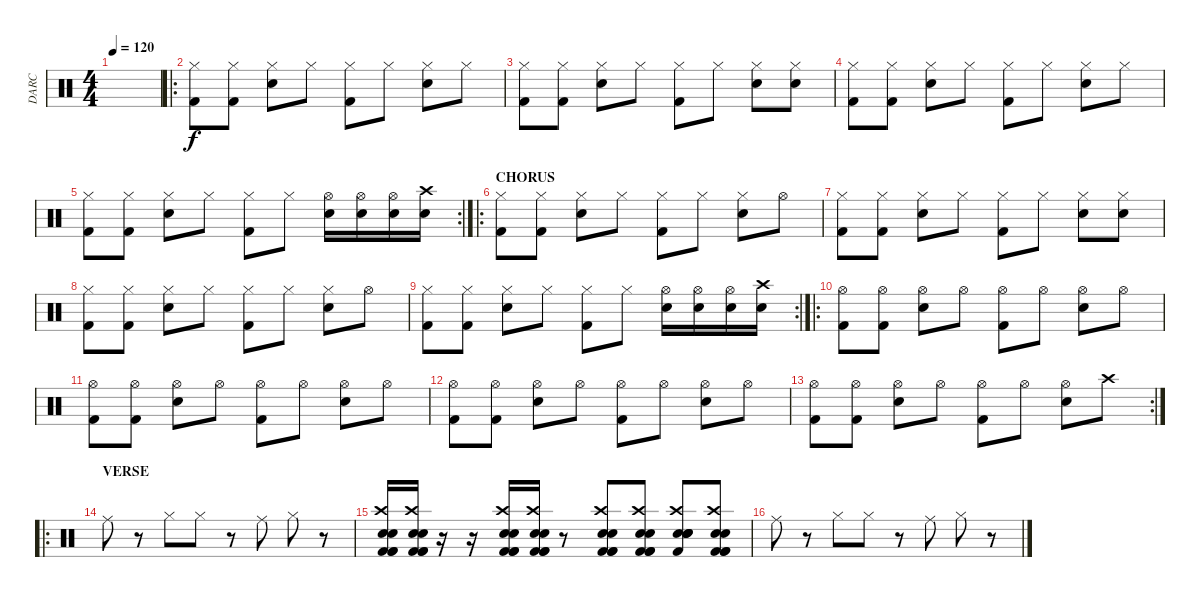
\track ("DARC" "DARC") {instrument percussion}
\staff {score}
\articulation defaults
\ts (4 4)
\tempo 120
\clef neutral
\ks c
|
\ro
("Hi-Hat (closed)" "Kick (hit) 2").8 ("Hi-Hat (closed)" "Kick (hit) 2").8 ("Hi-Hat (closed)" "Snare (hit) 2").8 "Hi-Hat (closed)".8 ("Hi-Hat (closed)" "Kick (hit) 2").8 "Hi-Hat (closed)".8 ("Hi-Hat (closed)" "Snare (hit) 2").8 "Hi-Hat (closed)".8 |
("Hi-Hat (closed)" "Kick (hit) 2").8 ("Hi-Hat (closed)" "Kick (hit) 2").8 ("Hi-Hat (closed)" "Snare (hit) 2").8 "Hi-Hat (closed)".8 ("Hi-Hat (closed)" "Kick (hit) 2").8 "Hi-Hat (closed)".8 ("Hi-Hat (closed)" "Snare (hit) 2").8 ("Hi-Hat (closed)" "Snare (hit) 2").8 |
("Hi-Hat (closed)" "Kick (hit) 2").8 ("Hi-Hat (closed)" "Kick (hit) 2").8 ("Hi-Hat (closed)" "Snare (hit) 2").8 "Hi-Hat (closed)".8 ("Hi-Hat (closed)" "Kick (hit) 2").8 "Hi-Hat (closed)".8 ("Hi-Hat (closed)" "Snare (hit) 2").8 "Hi-Hat (closed)".8 |
\rc 2
("Hi-Hat (closed)" "Kick (hit) 2").8 ("Hi-Hat (closed)" "Kick (hit) 2").8 ("Hi-Hat (closed)" "Snare (hit) 2").8 "Hi-Hat (closed)".8 ("Hi-Hat (closed)" "Kick (hit) 2").8 "Hi-Hat (closed)".8 ("Hi-Hat (open)" "Snare (hit) 2").16 ("Hi-Hat (open)" "Snare (hit) 2").16 ("Hi-Hat (open)" "Snare (hit) 2").16 ("Crash high (hit)" "Snare (hit) 2").16 |
\ro
\section ("" "CHORUS")
("Hi-Hat (closed)" "Kick (hit) 2").8 ("Hi-Hat (closed)" "Kick (hit) 2").8 ("Hi-Hat (closed)" "Snare (hit) 2").8 "Hi-Hat (closed)".8 ("Hi-Hat (closed)" "Kick (hit) 2").8 "Hi-Hat (closed)".8 ("Hi-Hat (closed)" "Snare (hit) 2").8 "Hi-Hat (open)".8 |
("Hi-Hat (closed)" "Kick (hit) 2").8 ("Hi-Hat (closed)" "Kick (hit) 2").8 ("Hi-Hat (closed)" "Snare (hit) 2").8 "Hi-Hat (closed)".8 ("Hi-Hat (closed)" "Kick (hit) 2").8 "Hi-Hat (closed)".8 ("Hi-Hat (closed)" "Snare (hit) 2").8 ("Hi-Hat (closed)" "Snare (hit) 2").8 |
("Hi-Hat (closed)" "Kick (hit) 2").8 ("Hi-Hat (closed)" "Kick (hit) 2").8 ("Hi-Hat (closed)" "Snare (hit) 2").8 "Hi-Hat (closed)".8 ("Hi-Hat (closed)" "Kick (hit) 2").8 "Hi-Hat (closed)".8 ("Hi-Hat (closed)" "Snare (hit) 2").8 "Hi-Hat (open)".8 |
\rc 2
("Hi-Hat (closed)" "Kick (hit) 2").8 ("Hi-Hat (closed)" "Kick (hit) 2").8 ("Hi-Hat (closed)" "Snare (hit) 2").8 "Hi-Hat (closed)".8 ("Hi-Hat (closed)" "Kick (hit) 2").8 "Hi-Hat (closed)".8 ("Hi-Hat (open)" "Snare (hit) 2").16 ("Hi-Hat (open)" "Snare (hit) 2").16 ("Hi-Hat (open)" "Snare (hit) 2").16 ("Crash high (hit)" "Snare (hit) 2").16 |
\ro
("Hi-Hat (open)" "Kick (hit) 2").8 ("Hi-Hat (open)" "Kick (hit) 2").8 ("Hi-Hat (open)" "Snare (hit) 2").8 "Hi-Hat (open)".8 ("Hi-Hat (open)" "Kick (hit) 2").8 "Hi-Hat (open)".8 ("Hi-Hat (open)" "Snare (hit) 2").8 "Hi-Hat (open)".8 |
("Hi-Hat (open)" "Kick (hit) 2").8 ("Hi-Hat (open)" "Kick (hit) 2").8 ("Hi-Hat (open)" "Snare (hit) 2").8 "Hi-Hat (open)".8 ("Hi-Hat (open)" "Kick (hit) 2").8 "Hi-Hat (open)".8 ("Hi-Hat (open)" "Snare (hit) 2").8 "Hi-Hat (open)".8 |
("Hi-Hat (open)" "Kick (hit) 2").8 ("Hi-Hat (open)" "Kick (hit) 2").8 ("Hi-Hat (open)" "Snare (hit) 2").8 "Hi-Hat (open)".8 ("Hi-Hat (open)" "Kick (hit) 2").8 "Hi-Hat (open)".8 ("Hi-Hat (open)" "Snare (hit) 2").8 "Hi-Hat (open)".8 |
\rc 2
("Hi-Hat (open)" "Kick (hit) 2").8 ("Hi-Hat (open)" "Kick (hit) 2").8 ("Hi-Hat (open)" "Snare (hit) 2").8 "Hi-Hat (open)".8 ("Hi-Hat (open)" "Kick (hit) 2").8 "Hi-Hat (open)".8 ("Hi-Hat (open)" "Snare (hit) 2").8 "Crash high (hit)".8 |
\ro
\section ("" "VERSE")
"Ride (middle)".8 r.8 "Hi-Hat (closed)".8 "Hi-Hat (closed)".8 r.8 "Ride (middle)".8 "Hi-Hat (closed)".8 r.8 |
("Crash high (hit)" "Kick (hit) 2" "Electric Snare (hit)" "Electric Snare (hit)" "Kick (hit) 2" "Kick (hit) 2").16 ("Crash high (hit)" "Kick (hit) 2" "Electric Snare (hit)" "Electric Snare (hit)" "Kick (hit) 2" "Kick (hit) 2").16 r.16 r.16 ("Crash high (hit)" "Kick (hit) 2" "Electric Snare (hit)" "Electric Snare (hit)" "Kick (hit) 2" "Kick (hit) 2").16 ("Crash high (hit)" "Kick (hit) 2" "Electric Snare (hit)" "Electric Snare (hit)" "Kick (hit) 2" "Kick (hit) 2").16 r.8 ("Crash high (hit)" "Kick (hit) 2" "Electric Snare (hit)" "Electric Snare (hit)" "Kick (hit) 2" "Kick (hit) 2").8 ("Crash high (hit)" "Kick (hit) 2" "Electric Snare (hit)" "Electric Snare (hit)" "Kick (hit) 2" "Kick (hit) 2").8 ("Crash high (hit)" "Kick (hit) 2" "Electric Snare (hit)" "Electric Snare (hit)" "Electric Snare (hit)" "Electric Snare (hit)").8 ("Crash high (hit)" "Kick (hit) 2" "Electric Snare (hit)" "Electric Snare (hit)" "Kick (hit) 2" "Kick (hit) 2").8 |
"Ride (middle)".8 r.8 "Hi-Hat (closed)".8 "Hi-Hat (closed)".8 r.8 "Ride (middle)".8 "Hi-Hat (closed)".8 r.8
